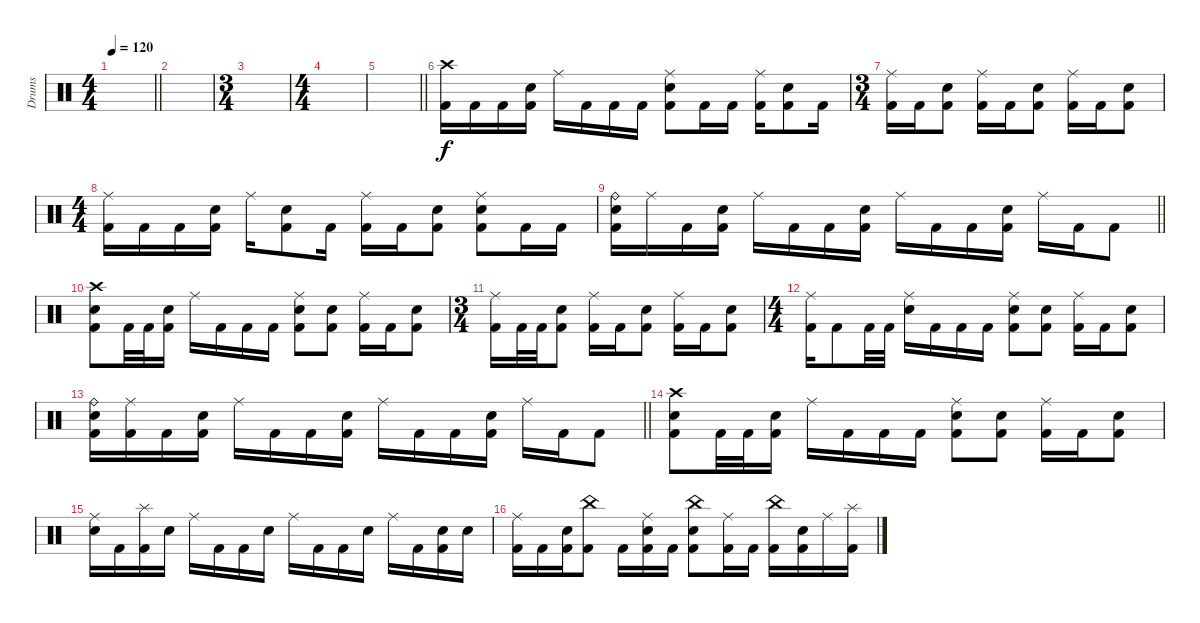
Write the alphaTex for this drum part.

\track ("Drums" "Drums") {instrument percussion}
\staff
\articulation defaults
\ts (4 4)
\tempo 120
\clef neutral
\barLineRight lightlight
\ks c
|
|
\ts (3 4)
|
\ts (4 4)
|
\barLineRight lightlight
|
\section ("" "")
("Crash high (hit)" "Kick (hit) 2").16 "Kick (hit) 2".16 "Kick (hit) 2".16 ("Electric Snare (hit)" "Kick (hit) 2").16 "Ride (middle)".16 "Kick (hit) 2".16 "Kick (hit) 2".16 "Kick (hit) 2".16 ("Ride (middle)" "Electric Snare (hit)" "Kick (hit) 2").8 "Kick (hit) 2".16 "Kick (hit) 2".16 ("Ride (middle)" "Kick (hit) 2").16 ("Electric Snare (hit)" "Kick (hit) 2").8 "Kick (hit) 2".16 |
\ts (3 4)
("Ride (middle)" "Kick (hit) 2").16 "Kick (hit) 2".16 ("Electric Snare (hit)" "Kick (hit) 2").8 ("Ride (middle)" "Kick (hit) 2").16 "Kick (hit) 2".16 ("Electric Snare (hit)" "Kick (hit) 2").8 ("Ride (middle)" "Kick (hit) 2").16 "Kick (hit) 2".16 ("Electric Snare (hit)" "Kick (hit) 2").8 |
\ts (4 4)
("Ride (middle)" "Kick (hit) 2").16 "Kick (hit) 2".16 "Kick (hit) 2".16 ("Electric Snare (hit)" "Kick (hit) 2").16 "Ride (middle)".16 ("Electric Snare (hit)" "Kick (hit) 2").8 "Kick (hit) 2".16 ("Ride (middle)" "Kick (hit) 2").16 "Kick (hit) 2".16 ("Electric Snare (hit)" "Kick (hit) 2").8 ("Ride (middle)" "Electric Snare (hit)" "Kick (hit) 2").8 "Kick (hit) 2".16 "Kick (hit) 2".16 |
\barLineRight lightlight
("Ride (bell)" "Electric Snare (hit)" "Kick (hit) 2").16 "Ride (middle)".16 "Kick (hit) 2".16 ("Electric Snare (hit)" "Kick (hit) 2").16 "Ride (middle)".16 "Kick (hit) 2".16 "Kick (hit) 2".16 ("Electric Snare (hit)" "Kick (hit) 2").16 "Ride (middle)".16 "Kick (hit) 2".16 "Kick (hit) 2".16 ("Electric Snare (hit)" "Kick (hit) 2").16 "Ride (middle)".16 "Kick (hit) 2".16 "Kick (hit) 2".8 |
("Crash high (hit)" "Electric Snare (hit)" "Kick (hit) 2").8 "Kick (hit) 2".32 "Kick (hit) 2".32 ("Electric Snare (hit)" "Kick (hit) 2").16 "Ride (middle)".16 "Kick (hit) 2".16 "Kick (hit) 2".16 "Kick (hit) 2".16 ("Ride (middle)" "Electric Snare (hit)" "Kick (hit) 2").8 ("Electric Snare (hit)" "Kick (hit) 2").8 ("Ride (middle)" "Kick (hit) 2").16 "Kick (hit) 2".16 ("Electric Snare (hit)" "Kick (hit) 2").8 |
\ts (3 4)
("Ride (middle)" "Kick (hit) 2").16 "Kick (hit) 2".32 "Kick (hit) 2".32 ("Electric Snare (hit)" "Kick (hit) 2").8 ("Ride (middle)" "Kick (hit) 2").16 "Kick (hit) 2".16 ("Electric Snare (hit)" "Kick (hit) 2").8 ("Ride (middle)" "Kick (hit) 2").16 "Kick (hit) 2".16 ("Electric Snare (hit)" "Kick (hit) 2").8 |
\ts (4 4)
("Ride (middle)" "Kick (hit) 2").16 "Kick (hit) 2".8 "Kick (hit) 2".32 "Kick (hit) 2".32 ("Ride (middle)" "Electric Snare (hit)").16 "Kick (hit) 2".16 "Kick (hit) 2".16 "Kick (hit) 2".16 ("Ride (middle)" "Electric Snare (hit)" "Kick (hit) 2").8 ("Electric Snare (hit)" "Kick (hit) 2").8 ("Ride (middle)" "Kick (hit) 2").16 "Kick (hit) 2".16 ("Electric Snare (hit)" "Kick (hit) 2").8 |
\barLineRight lightlight
("Ride (bell)" "Electric Snare (hit)" "Kick (hit) 2").16 ("Ride (middle)" "Kick (hit) 2").16 "Kick (hit) 2".16 ("Electric Snare (hit)" "Kick (hit) 2").16 "Ride (middle)".16 "Kick (hit) 2".16 "Kick (hit) 2".16 ("Electric Snare (hit)" "Kick (hit) 2").16 "Ride (middle)".16 "Kick (hit) 2".16 "Kick (hit) 2".16 ("Electric Snare (hit)" "Kick (hit) 2").16 "Ride (middle)".16 "Kick (hit) 2".16 "Kick (hit) 2".8 |
("Crash high (hit)" "Electric Snare (hit)" "Kick (hit) 2").8 "Kick (hit) 2".32 "Kick (hit) 2".32 ("Electric Snare (hit)" "Kick (hit) 2").16 "Ride (middle)".16 "Kick (hit) 2".16 "Kick (hit) 2".16 "Kick (hit) 2".16 ("Ride (middle)" "Electric Snare (hit)" "Kick (hit) 2").8 ("Electric Snare (hit)" "Kick (hit) 2").8 ("Ride (middle)" "Kick (hit) 2").16 "Kick (hit) 2".16 ("Electric Snare (hit)" "Kick (hit) 2").8 |
("Ride (middle)" "Electric Snare (hit)").16 "Kick (hit) 2".16 ("Splash (hit)" "Kick (hit) 2").16 "Electric Snare (hit)".16 "Ride (middle)".16 "Kick (hit) 2".16 "Kick (hit) 2".16 "Electric Snare (hit)".16 "Ride (middle)".16 "Kick (hit) 2".16 "Kick (hit) 2".16 "Electric Snare (hit)".16 "Ride (middle)".16 "Kick (hit) 2".16 ("Electric Snare (hit)" "Kick (hit) 2").16 "Electric Snare (hit)".16 |
("Ride (middle)" "Kick (hit) 2").16 "Kick (hit) 2".16 ("Electric Snare (hit)" "Kick (hit) 2").16 ("China (hit)" "Kick (hit) 2").8 "Kick (hit) 2".16 ("Ride (middle)" "Electric Snare (hit)" "Kick (hit) 2").16 "Kick (hit) 2".16 ("China (hit)" "Electric Snare (hit)" "Kick (hit) 2").8 ("Ride (middle)" "Kick (hit) 2").16 "Kick (hit) 2".16 ("China (hit)" "Kick (hit) 2").16 ("Electric Snare (hit)" "Kick (hit) 2").16 "Ride (middle)".16 ("Splash (hit)" "Kick (hit) 2").16
